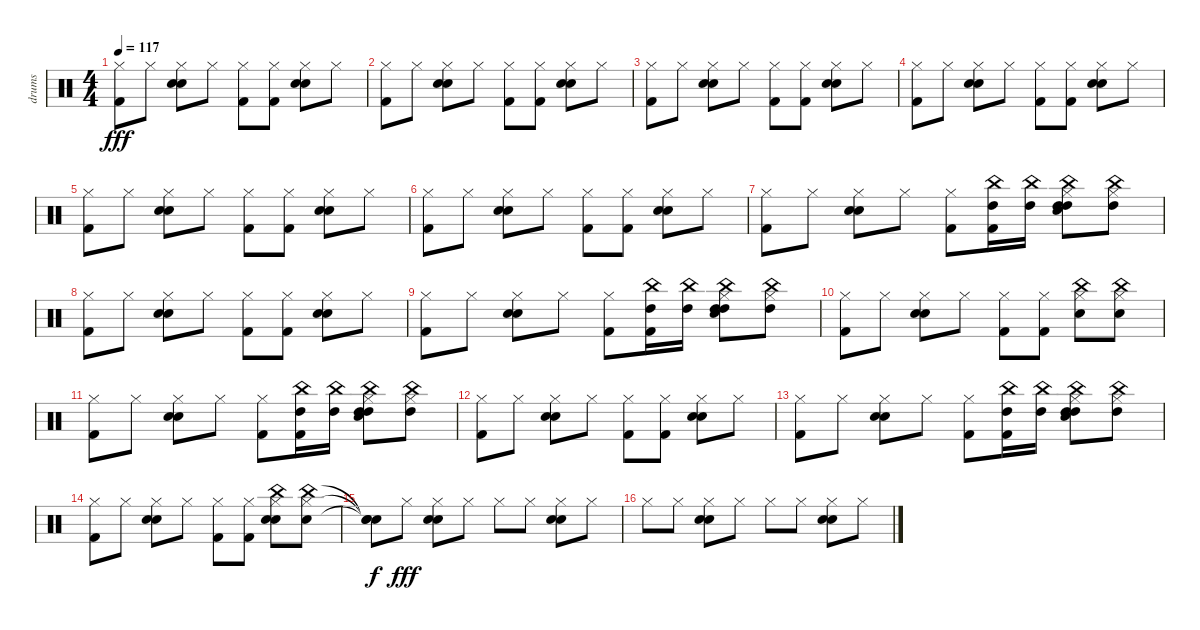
\track ("drums" "drums") {instrument percussion}
\staff {score}
\articulation defaults
\ts (4 4)
\tempo 117
\clef neutral
\ks c
("Kick (hit) 2" "Hi-Hat (closed)").8{dy fff} "Hi-Hat (closed)".8 ("Hi-Hat (closed)" "Electric Snare (hit)" "Electric Snare (hit)").8 "Hi-Hat (closed)".8 ("Kick (hit) 2" "Hi-Hat (closed)").8 ("Kick (hit) 2" "Hi-Hat (closed)").8 ("Hi-Hat (closed)" "Electric Snare (hit)" "Electric Snare (hit)").8 "Hi-Hat (closed)".8 |
("Kick (hit) 2" "Hi-Hat (closed)").8 "Hi-Hat (closed)".8 ("Hi-Hat (closed)" "Electric Snare (hit)" "Electric Snare (hit)").8 "Hi-Hat (closed)".8 ("Kick (hit) 2" "Hi-Hat (closed)").8 ("Kick (hit) 2" "Hi-Hat (closed)").8 ("Hi-Hat (closed)" "Electric Snare (hit)" "Electric Snare (hit)").8 "Hi-Hat (closed)".8 |
("Kick (hit) 2" "Hi-Hat (closed)").8 "Hi-Hat (closed)".8 ("Hi-Hat (closed)" "Electric Snare (hit)" "Electric Snare (hit)").8 "Hi-Hat (closed)".8 ("Kick (hit) 2" "Hi-Hat (closed)").8 ("Kick (hit) 2" "Hi-Hat (closed)").8 ("Hi-Hat (closed)" "Electric Snare (hit)" "Electric Snare (hit)").8 "Hi-Hat (closed)".8 |
("Kick (hit) 2" "Hi-Hat (closed)").8 "Hi-Hat (closed)".8 ("Hi-Hat (closed)" "Electric Snare (hit)" "Electric Snare (hit)").8 "Hi-Hat (closed)".8 ("Kick (hit) 2" "Hi-Hat (closed)").8 ("Kick (hit) 2" "Hi-Hat (closed)").8 ("Hi-Hat (closed)" "Electric Snare (hit)" "Electric Snare (hit)").8 "Hi-Hat (closed)".8 |
("Kick (hit) 2" "Hi-Hat (closed)").8 "Hi-Hat (closed)".8 ("Hi-Hat (closed)" "Electric Snare (hit)" "Electric Snare (hit)").8 "Hi-Hat (closed)".8 ("Kick (hit) 2" "Hi-Hat (closed)").8 ("Kick (hit) 2" "Hi-Hat (closed)").8 ("Hi-Hat (closed)" "Electric Snare (hit)" "Electric Snare (hit)").8 "Hi-Hat (closed)".8 |
("Kick (hit) 2" "Hi-Hat (closed)").8 "Hi-Hat (closed)".8 ("Hi-Hat (closed)" "Electric Snare (hit)" "Electric Snare (hit)").8 "Hi-Hat (closed)".8 ("Kick (hit) 2" "Hi-Hat (closed)").8 ("Kick (hit) 2" "Hi-Hat (closed)").8 ("Hi-Hat (closed)" "Electric Snare (hit)" "Electric Snare (hit)").8 "Hi-Hat (closed)".8 |
("Kick (hit) 2" "Hi-Hat (closed)").8 "Hi-Hat (closed)".8 ("Hi-Hat (closed)" "Electric Snare (hit)" "Electric Snare (hit)").8 "Hi-Hat (closed)".8 ("Kick (hit) 2" "Hi-Hat (closed)").8 ("Kick (hit) 2" "China (hit)" "High Tom (hit)").16 ("China (hit)" "High Tom (hit)").16 ("China (hit)" "High Tom (hit)" "Hi-Hat (closed)" "High Tom (hit)" "Electric Snare (hit)").8 ("China (hit)" "High Tom (hit)" "Hi-Hat (closed)").8 |
("Kick (hit) 2" "Hi-Hat (closed)").8 "Hi-Hat (closed)".8 ("Hi-Hat (closed)" "Electric Snare (hit)" "Electric Snare (hit)").8 "Hi-Hat (closed)".8 ("Kick (hit) 2" "Hi-Hat (closed)").8 ("Kick (hit) 2" "Hi-Hat (closed)").8 ("Hi-Hat (closed)" "Electric Snare (hit)" "Electric Snare (hit)").8 "Hi-Hat (closed)".8 |
("Kick (hit) 2" "Hi-Hat (closed)").8 "Hi-Hat (closed)".8 ("Hi-Hat (closed)" "Electric Snare (hit)" "Electric Snare (hit)").8 "Hi-Hat (closed)".8 ("Kick (hit) 2" "Hi-Hat (closed)").8 ("Kick (hit) 2" "China (hit)" "High Tom (hit)").16 ("China (hit)" "High Tom (hit)").16 ("China (hit)" "High Tom (hit)" "Hi-Hat (closed)" "High Tom (hit)" "Electric Snare (hit)").8 ("China (hit)" "High Tom (hit)" "Hi-Hat (closed)").8 |
("Kick (hit) 2" "Hi-Hat (closed)").8 "Hi-Hat (closed)".8 ("Hi-Hat (closed)" "Electric Snare (hit)" "Electric Snare (hit)").8 "Hi-Hat (closed)".8 ("Kick (hit) 2" "Hi-Hat (closed)").8 ("Kick (hit) 2" "Hi-Hat (closed)").8 ("Hi-Hat (closed)" "China (hit)" "Electric Snare (hit)").8 ("China (hit)" "Electric Snare (hit)" "Hi-Hat (closed)").8 |
("Kick (hit) 2" "Hi-Hat (closed)").8 "Hi-Hat (closed)".8 ("Hi-Hat (closed)" "Electric Snare (hit)" "Electric Snare (hit)").8 "Hi-Hat (closed)".8 ("Kick (hit) 2" "Hi-Hat (closed)").8 ("Kick (hit) 2" "China (hit)" "High Tom (hit)").16 ("China (hit)" "High Tom (hit)").16 ("China (hit)" "High Tom (hit)" "Hi-Hat (closed)" "High Tom (hit)" "Electric Snare (hit)").8 ("China (hit)" "High Tom (hit)" "Hi-Hat (closed)").8 |
("Kick (hit) 2" "Hi-Hat (closed)").8 "Hi-Hat (closed)".8 ("Hi-Hat (closed)" "Electric Snare (hit)" "Electric Snare (hit)").8 "Hi-Hat (closed)".8 ("Kick (hit) 2" "Hi-Hat (closed)").8 ("Kick (hit) 2" "Hi-Hat (closed)").8 ("Hi-Hat (closed)" "Electric Snare (hit)" "Electric Snare (hit)").8 "Hi-Hat (closed)".8 |
("Kick (hit) 2" "Hi-Hat (closed)").8 "Hi-Hat (closed)".8 ("Hi-Hat (closed)" "Electric Snare (hit)" "Electric Snare (hit)").8 "Hi-Hat (closed)".8 ("Kick (hit) 2" "Hi-Hat (closed)").8 ("Kick (hit) 2" "China (hit)" "High Tom (hit)").16 ("China (hit)" "High Tom (hit)").16 ("China (hit)" "High Tom (hit)" "Hi-Hat (closed)" "High Tom (hit)" "Electric Snare (hit)").8 ("China (hit)" "High Tom (hit)" "Hi-Hat (closed)").8 |
("Kick (hit) 2" "Hi-Hat (closed)").8 "Hi-Hat (closed)".8 ("Hi-Hat (closed)" "Electric Snare (hit)" "Electric Snare (hit)").8 "Hi-Hat (closed)".8 ("Kick (hit) 2" "Hi-Hat (closed)").8 ("Kick (hit) 2" "Hi-Hat (closed)").8 ("Hi-Hat (closed)" "China (hit)" "Electric Snare (hit)" "Electric Snare (hit)").8 ("China (hit)" "Electric Snare (hit)" "Hi-Hat (closed)").8 |
("Snare (hit)"{t} "Snare (hit)"{t} "Snare (hit)"{t}).8{dy f} "Hi-Hat (closed)".8{dy fff} ("Hi-Hat (closed)" "Electric Snare (hit)" "Electric Snare (hit)").8 "Hi-Hat (closed)".8 "Hi-Hat (closed)".8 "Hi-Hat (closed)".8 ("Hi-Hat (closed)" "Electric Snare (hit)" "Electric Snare (hit)").8 "Hi-Hat (closed)".8 |
"Hi-Hat (closed)".8 "Hi-Hat (closed)".8 ("Hi-Hat (closed)" "Electric Snare (hit)" "Electric Snare (hit)").8 "Hi-Hat (closed)".8 "Hi-Hat (closed)".8 "Hi-Hat (closed)".8 ("Hi-Hat (closed)" "Electric Snare (hit)" "Electric Snare (hit)").8 "Hi-Hat (closed)".8
